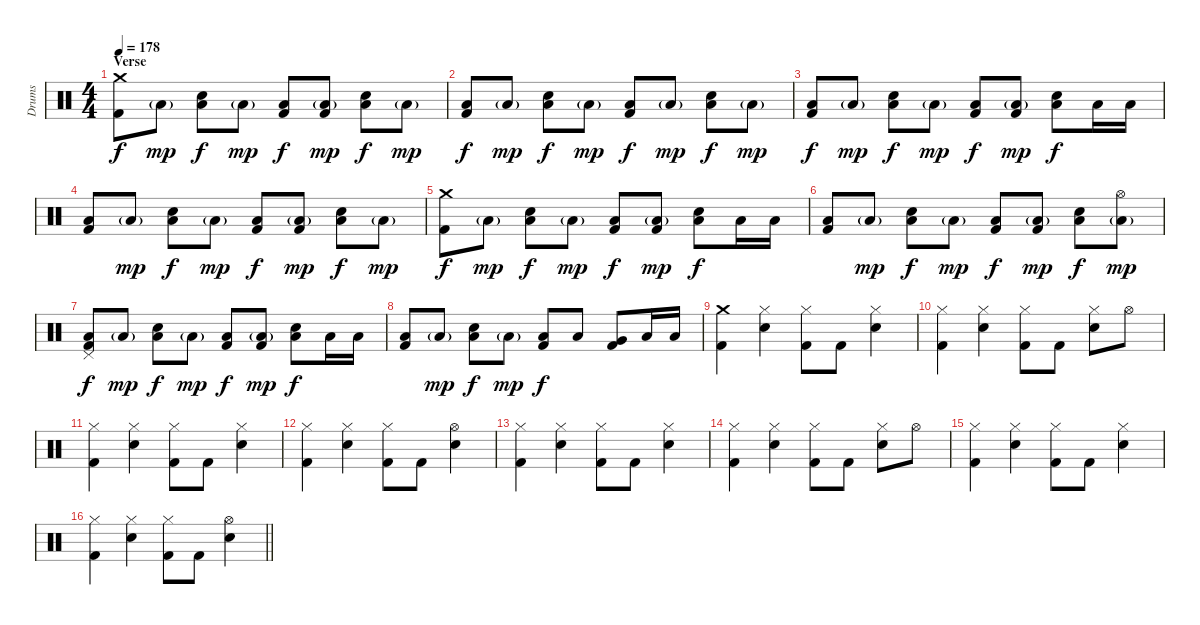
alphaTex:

\track ("Drums" "Drums") {instrument percussion}
\staff {score}
\articulation defaults
\ts (4 4)
\section ("" "Verse")
\tempo 178
\clef neutral
\ks c
("Crash medium (hit)" "Kick (hit) 2").8{dy f} "Low Floor Tom (hit)"{g}.8{dy mp} ("Low Floor Tom (hit)" "Electric Snare (hit)").8{dy f} "Low Floor Tom (hit)"{g}.8{dy mp} ("Low Floor Tom (hit)" "Kick (hit) 2").8{dy f} ("Low Floor Tom (hit)"{g} "Kick (hit) 2").8{dy mp} ("Low Floor Tom (hit)" "Electric Snare (hit)").8{dy f} "Low Floor Tom (hit)"{g}.8{dy mp} |
("Low Floor Tom (hit)" "Kick (hit) 2").8{dy f} "Low Floor Tom (hit)"{g}.8{dy mp} ("Low Floor Tom (hit)" "Electric Snare (hit)").8{dy f} "Low Floor Tom (hit)"{g}.8{dy mp} ("Low Floor Tom (hit)" "Kick (hit) 2").8{dy f} "Low Floor Tom (hit)"{g}.8{dy mp} ("Low Floor Tom (hit)" "Electric Snare (hit)").8{dy f} "Low Floor Tom (hit)"{g}.8{dy mp} |
("Low Floor Tom (hit)" "Kick (hit) 2").8{dy f} "Low Floor Tom (hit)"{g}.8{dy mp} ("Low Floor Tom (hit)" "Electric Snare (hit)").8{dy f} "Low Floor Tom (hit)"{g}.8{dy mp} ("Low Floor Tom (hit)" "Kick (hit) 2").8{dy f} ("Low Floor Tom (hit)"{g} "Kick (hit) 2").8{dy mp} ("Low Floor Tom (hit)" "Electric Snare (hit)").8{dy f} "Low Floor Tom (hit)".16 "Low Floor Tom (hit)".16 |
("Low Floor Tom (hit)" "Kick (hit) 2").8 "Low Floor Tom (hit)"{g}.8{dy mp} ("Low Floor Tom (hit)" "Electric Snare (hit)").8{dy f} "Low Floor Tom (hit)"{g}.8{dy mp} ("Low Floor Tom (hit)" "Kick (hit) 2").8{dy f} ("Low Floor Tom (hit)"{g} "Kick (hit) 2").8{dy mp} ("Low Floor Tom (hit)" "Electric Snare (hit)").8{dy f} "Low Floor Tom (hit)"{g}.8{dy mp} |
("Crash medium (hit)" "Kick (hit) 2").8{dy f} "Low Floor Tom (hit)"{g}.8{dy mp} ("Low Floor Tom (hit)" "Electric Snare (hit)").8{dy f} "Low Floor Tom (hit)"{g}.8{dy mp} ("Low Floor Tom (hit)" "Kick (hit) 2").8{dy f} ("Low Floor Tom (hit)"{g} "Kick (hit) 2").8{dy mp} ("Low Floor Tom (hit)" "Electric Snare (hit)").8{dy f} "Low Floor Tom (hit)".16 "Low Floor Tom (hit)".16 |
("Low Floor Tom (hit)" "Kick (hit) 2").8 "Low Floor Tom (hit)"{g}.8{dy mp} ("Low Floor Tom (hit)" "Electric Snare (hit)").8{dy f} "Low Floor Tom (hit)"{g}.8{dy mp} ("Low Floor Tom (hit)" "Kick (hit) 2").8{dy f} ("Low Floor Tom (hit)"{g} "Kick (hit) 2").8{dy mp} ("Low Floor Tom (hit)" "Electric Snare (hit)").8{dy f} ("Hi-Hat (open)" "Low Floor Tom (hit)"{g}).8{dy mp} |
("Pedal Hi-Hat (hit)" "Low Floor Tom (hit)" "Kick (hit) 2").8{dy f} "Low Floor Tom (hit)"{g}.8{dy mp} ("Low Floor Tom (hit)" "Electric Snare (hit)").8{dy f} "Low Floor Tom (hit)"{g}.8{dy mp} ("Low Floor Tom (hit)" "Kick (hit) 2").8{dy f} ("Low Floor Tom (hit)"{g} "Kick (hit) 2").8{dy mp} ("Low Floor Tom (hit)" "Electric Snare (hit)").8{dy f} "Low Floor Tom (hit)".16 "Low Floor Tom (hit)".16 |
("Low Floor Tom (hit)" "Kick (hit) 2").8 "Low Floor Tom (hit)"{g}.8{dy mp} ("Low Floor Tom (hit)" "Electric Snare (hit)").8{dy f} "Low Floor Tom (hit)"{g}.8{dy mp} ("Low Floor Tom (hit)" "Kick (hit) 2").8{dy f} "Low Tom (hit)".8 ("Very Low Tom (hit)" "Kick (hit) 2").8 "Low Floor Tom (hit)".16 "Low Floor Tom (hit)".16 |
("Crash medium (hit)" "Kick (hit) 2").4 ("Hi-Hat (closed)" "Electric Snare (hit)").4 ("Hi-Hat (closed)" "Kick (hit) 2").8 "Kick (hit) 2".8 ("Hi-Hat (closed)" "Electric Snare (hit)").4 |
("Hi-Hat (closed)" "Kick (hit) 2").4 ("Hi-Hat (closed)" "Electric Snare (hit)").4 ("Hi-Hat (closed)" "Kick (hit) 2").8 "Kick (hit) 2".8 ("Hi-Hat (closed)" "Electric Snare (hit)").8 "Hi-Hat (open)".8 |
("Hi-Hat (closed)" "Kick (hit) 2").4 ("Hi-Hat (closed)" "Electric Snare (hit)").4 ("Hi-Hat (closed)" "Kick (hit) 2").8 "Kick (hit) 2".8 ("Hi-Hat (closed)" "Electric Snare (hit)").4 |
("Hi-Hat (closed)" "Kick (hit) 2").4 ("Hi-Hat (closed)" "Electric Snare (hit)").4 ("Hi-Hat (closed)" "Kick (hit) 2").8 "Kick (hit) 2".8 ("Hi-Hat (open)" "Electric Snare (hit)").4 |
("Hi-Hat (closed)" "Kick (hit) 2").4 ("Hi-Hat (closed)" "Electric Snare (hit)").4 ("Hi-Hat (closed)" "Kick (hit) 2").8 "Kick (hit) 2".8 ("Hi-Hat (closed)" "Electric Snare (hit)").4 |
("Hi-Hat (closed)" "Kick (hit) 2").4 ("Hi-Hat (closed)" "Electric Snare (hit)").4 ("Hi-Hat (closed)" "Kick (hit) 2").8 "Kick (hit) 2".8 ("Hi-Hat (closed)" "Electric Snare (hit)").8 "Hi-Hat (open)".8 |
("Hi-Hat (closed)" "Kick (hit) 2").4 ("Hi-Hat (closed)" "Electric Snare (hit)").4 ("Hi-Hat (closed)" "Kick (hit) 2").8 "Kick (hit) 2".8 ("Hi-Hat (closed)" "Electric Snare (hit)").4 |
\barLineRight lightlight
("Hi-Hat (closed)" "Kick (hit) 2").4 ("Hi-Hat (closed)" "Electric Snare (hit)").4 ("Hi-Hat (closed)" "Kick (hit) 2").8 "Kick (hit) 2".8 ("Hi-Hat (open)" "Electric Snare (hit)").4
